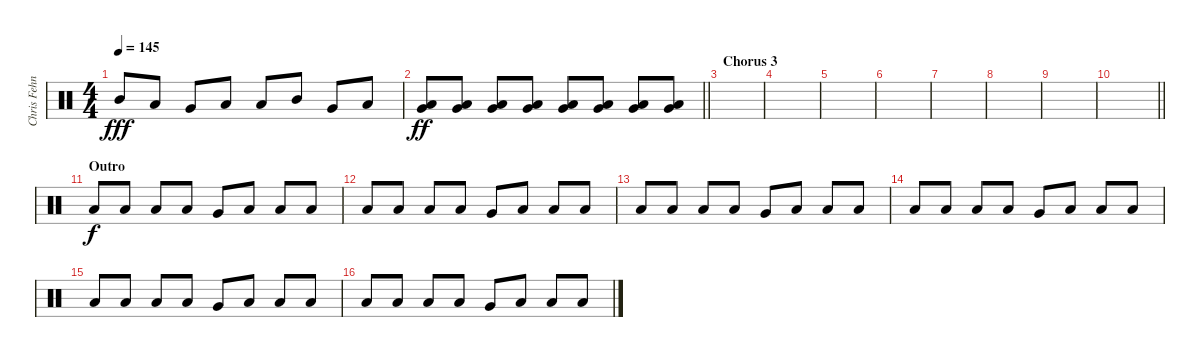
\track ("Chris Fehn" "Chris Fehn") {instrument percussion}
\staff {score}
\articulation defaults
\ts (4 4)
\tempo 145
\clef neutral
\ks c "Mid Tom (hit)".8{dy fff} "Low Tom (hit)".8 "Very Low Tom (hit)".8 "Low Floor Tom (hit)".8 "Low Tom (hit)".8 "Mid Tom (hit)".8 "Very Low Tom (hit)".8 "Low Floor Tom (hit)".8
|
\barLineRight lightlight
("Very Low Tom (hit)" "Low Floor Tom (hit)").8{dy ff} ("Very Low Tom (hit)" "Low Floor Tom (hit)").8 ("Very Low Tom (hit)" "Low Floor Tom (hit)").8 ("Very Low Tom (hit)" "Low Floor Tom (hit)").8 ("Very Low Tom (hit)" "Low Floor Tom (hit)").8 ("Very Low Tom (hit)" "Low Floor Tom (hit)").8 ("Very Low Tom (hit)" "Low Floor Tom (hit)").8 ("Very Low Tom (hit)" "Low Floor Tom (hit)").8 |
\section ("" "Chorus 3")
|
|
|
|
|
|
|
\barLineRight lightlight
|
\section ("" "Outro")
"Low Floor Tom (hit)".8{dy f} "Low Floor Tom (hit)".8 "Low Floor Tom (hit)".8 "Low Floor Tom (hit)".8 "Very Low Tom (hit)".8 "Low Floor Tom (hit)".8 "Low Floor Tom (hit)".8 "Low Floor Tom (hit)".8 |
"Low Floor Tom (hit)".8 "Low Floor Tom (hit)".8 "Low Floor Tom (hit)".8 "Low Floor Tom (hit)".8 "Very Low Tom (hit)".8 "Low Floor Tom (hit)".8 "Low Floor Tom (hit)".8 "Low Floor Tom (hit)".8 |
"Low Floor Tom (hit)".8 "Low Floor Tom (hit)".8 "Low Floor Tom (hit)".8 "Low Floor Tom (hit)".8 "Very Low Tom (hit)".8 "Low Floor Tom (hit)".8 "Low Floor Tom (hit)".8 "Low Floor Tom (hit)".8 |
"Low Floor Tom (hit)".8 "Low Floor Tom (hit)".8 "Low Floor Tom (hit)".8 "Low Floor Tom (hit)".8 "Very Low Tom (hit)".8 "Low Floor Tom (hit)".8 "Low Floor Tom (hit)".8 "Low Floor Tom (hit)".8 |
"Low Floor Tom (hit)".8 "Low Floor Tom (hit)".8 "Low Floor Tom (hit)".8 "Low Floor Tom (hit)".8 "Very Low Tom (hit)".8 "Low Floor Tom (hit)".8 "Low Floor Tom (hit)".8 "Low Floor Tom (hit)".8 |
"Low Floor Tom (hit)".8 "Low Floor Tom (hit)".8 "Low Floor Tom (hit)".8 "Low Floor Tom (hit)".8 "Very Low Tom (hit)".8 "Low Floor Tom (hit)".8 "Low Floor Tom (hit)".8 "Low Floor Tom (hit)".8
